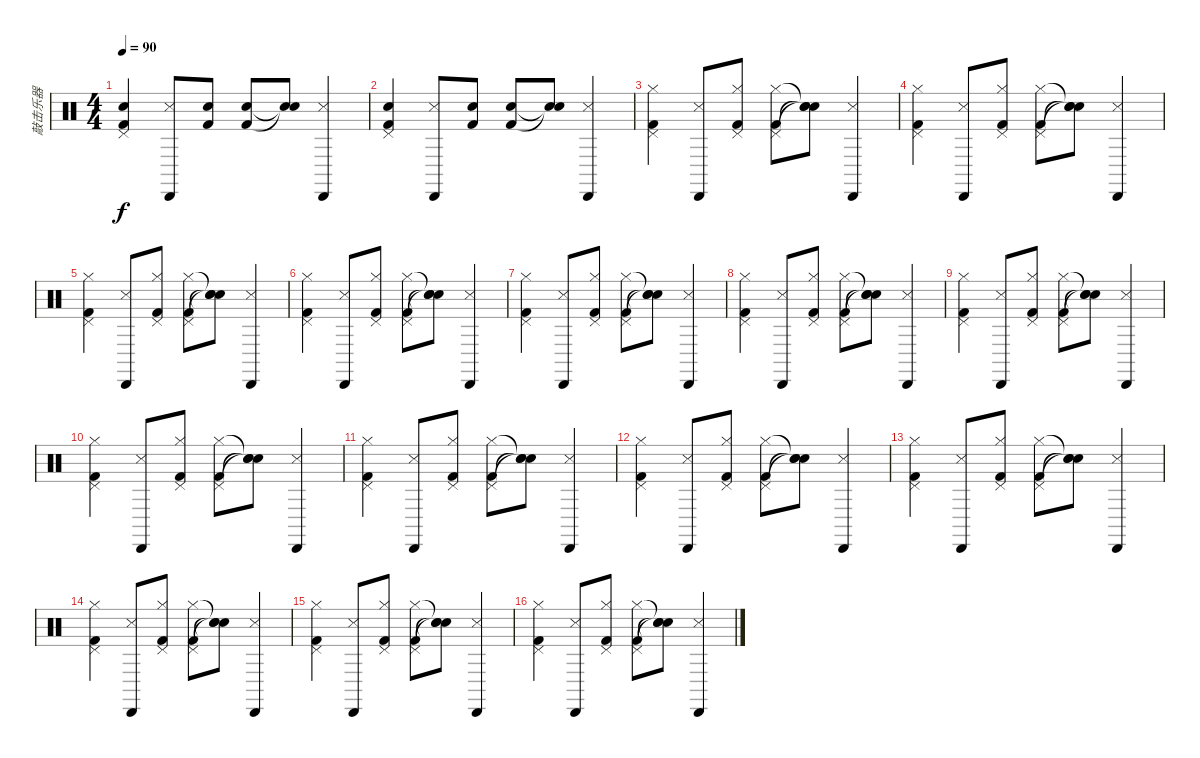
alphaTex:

\track ("敲击乐器" "敲击乐器") {instrument percussion}
\staff {score}
\articulation defaults
\ts (4 4)
\tempo 90
\clef neutral
\ks c
("Snare (hit) 2" "Pedal Hi-Hat (hit)" "Kick (hit) 2").4{dy f} ("Snare (side stick) 3" "Cabasa (hit)").8 ("Snare (hit) 2" "Kick (hit) 2").8 ("Snare (hit) 2" "Kick (hit) 2").8 ("Snare (hit)"{t} "Snare (hit)"{t}).8 ("Snare (side stick) 3" "Cabasa (hit)").4 |
("Snare (hit) 2" "Pedal Hi-Hat (hit)" "Kick (hit) 2").4 ("Snare (side stick) 3" "Cabasa (hit)").8 ("Snare (hit) 2" "Kick (hit) 2").8 ("Snare (hit) 2" "Kick (hit) 2").8 ("Snare (hit)"{t} "Snare (hit)"{t}).8 ("Snare (side stick) 3" "Cabasa (hit)").4 |
("Hi-Hat (closed)" "Pedal Hi-Hat (hit)" "Kick (hit) 2").4 ("Snare (side stick) 3" "Cabasa (hit)").8 ("Hi-Hat (closed)" "Pedal Hi-Hat (hit)" "Kick (hit) 2").8 ("Hi-Hat (closed)" "Pedal Hi-Hat (hit)" "Kick (hit) 2").8 ("Snare (hit)"{t} "Snare (hit)"{t} "Snare (hit)"{t}).8 ("Snare (side stick) 3" "Cabasa (hit)").4 |
("Hi-Hat (closed)" "Pedal Hi-Hat (hit)" "Kick (hit) 2").4 ("Snare (side stick) 3" "Cabasa (hit)").8 ("Hi-Hat (closed)" "Pedal Hi-Hat (hit)" "Kick (hit) 2").8 ("Hi-Hat (closed)" "Pedal Hi-Hat (hit)" "Kick (hit) 2").8 ("Snare (hit)"{t} "Snare (hit)"{t} "Snare (hit)"{t}).8 ("Snare (side stick) 3" "Cabasa (hit)").4 |
("Hi-Hat (closed)" "Pedal Hi-Hat (hit)" "Kick (hit) 2").4 ("Snare (side stick) 3" "Cabasa (hit)").8 ("Hi-Hat (closed)" "Pedal Hi-Hat (hit)" "Kick (hit) 2").8 ("Hi-Hat (closed)" "Pedal Hi-Hat (hit)" "Kick (hit) 2").8 ("Snare (hit)"{t} "Snare (hit)"{t} "Snare (hit)"{t}).8 ("Snare (side stick) 3" "Cabasa (hit)").4 |
("Hi-Hat (closed)" "Pedal Hi-Hat (hit)" "Kick (hit) 2").4 ("Snare (side stick) 3" "Cabasa (hit)").8 ("Hi-Hat (closed)" "Pedal Hi-Hat (hit)" "Kick (hit) 2").8 ("Hi-Hat (closed)" "Pedal Hi-Hat (hit)" "Kick (hit) 2").8 ("Snare (hit)"{t} "Snare (hit)"{t} "Snare (hit)"{t}).8 ("Snare (side stick) 3" "Cabasa (hit)").4 |
("Hi-Hat (closed)" "Pedal Hi-Hat (hit)" "Kick (hit) 2").4 ("Snare (side stick) 3" "Cabasa (hit)").8 ("Hi-Hat (closed)" "Pedal Hi-Hat (hit)" "Kick (hit) 2").8 ("Hi-Hat (closed)" "Pedal Hi-Hat (hit)" "Kick (hit) 2").8 ("Snare (hit)"{t} "Snare (hit)"{t} "Snare (hit)"{t}).8 ("Snare (side stick) 3" "Cabasa (hit)").4 |
("Hi-Hat (closed)" "Pedal Hi-Hat (hit)" "Kick (hit) 2").4 ("Snare (side stick) 3" "Cabasa (hit)").8 ("Hi-Hat (closed)" "Pedal Hi-Hat (hit)" "Kick (hit) 2").8 ("Hi-Hat (closed)" "Pedal Hi-Hat (hit)" "Kick (hit) 2").8 ("Snare (hit)"{t} "Snare (hit)"{t} "Snare (hit)"{t}).8 ("Snare (side stick) 3" "Cabasa (hit)").4 |
("Hi-Hat (closed)" "Pedal Hi-Hat (hit)" "Kick (hit) 2").4 ("Snare (side stick) 3" "Cabasa (hit)").8 ("Hi-Hat (closed)" "Pedal Hi-Hat (hit)" "Kick (hit) 2").8 ("Hi-Hat (closed)" "Pedal Hi-Hat (hit)" "Kick (hit) 2").8 ("Snare (hit)"{t} "Snare (hit)"{t} "Snare (hit)"{t}).8 ("Snare (side stick) 3" "Cabasa (hit)").4 |
("Hi-Hat (closed)" "Pedal Hi-Hat (hit)" "Kick (hit) 2").4 ("Snare (side stick) 3" "Cabasa (hit)").8 ("Hi-Hat (closed)" "Pedal Hi-Hat (hit)" "Kick (hit) 2").8 ("Hi-Hat (closed)" "Pedal Hi-Hat (hit)" "Kick (hit) 2").8 ("Snare (hit)"{t} "Snare (hit)"{t} "Snare (hit)"{t}).8 ("Snare (side stick) 3" "Cabasa (hit)").4 |
("Hi-Hat (closed)" "Pedal Hi-Hat (hit)" "Kick (hit) 2").4 ("Snare (side stick) 3" "Cabasa (hit)").8 ("Hi-Hat (closed)" "Pedal Hi-Hat (hit)" "Kick (hit) 2").8 ("Hi-Hat (closed)" "Pedal Hi-Hat (hit)" "Kick (hit) 2").8 ("Snare (hit)"{t} "Snare (hit)"{t} "Snare (hit)"{t}).8 ("Snare (side stick) 3" "Cabasa (hit)").4 |
("Hi-Hat (closed)" "Pedal Hi-Hat (hit)" "Kick (hit) 2").4 ("Snare (side stick) 3" "Cabasa (hit)").8 ("Hi-Hat (closed)" "Pedal Hi-Hat (hit)" "Kick (hit) 2").8 ("Hi-Hat (closed)" "Pedal Hi-Hat (hit)" "Kick (hit) 2").8 ("Snare (hit)"{t} "Snare (hit)"{t} "Snare (hit)"{t}).8 ("Snare (side stick) 3" "Cabasa (hit)").4 |
("Hi-Hat (closed)" "Pedal Hi-Hat (hit)" "Kick (hit) 2").4 ("Snare (side stick) 3" "Cabasa (hit)").8 ("Hi-Hat (closed)" "Pedal Hi-Hat (hit)" "Kick (hit) 2").8 ("Hi-Hat (closed)" "Pedal Hi-Hat (hit)" "Kick (hit) 2").8 ("Snare (hit)"{t} "Snare (hit)"{t} "Snare (hit)"{t}).8 ("Snare (side stick) 3" "Cabasa (hit)").4 |
("Hi-Hat (closed)" "Pedal Hi-Hat (hit)" "Kick (hit) 2").4 ("Snare (side stick) 3" "Cabasa (hit)").8 ("Hi-Hat (closed)" "Pedal Hi-Hat (hit)" "Kick (hit) 2").8 ("Hi-Hat (closed)" "Pedal Hi-Hat (hit)" "Kick (hit) 2").8 ("Snare (hit)"{t} "Snare (hit)"{t} "Snare (hit)"{t}).8 ("Snare (side stick) 3" "Cabasa (hit)").4 |
("Hi-Hat (closed)" "Pedal Hi-Hat (hit)" "Kick (hit) 2").4 ("Snare (side stick) 3" "Cabasa (hit)").8 ("Hi-Hat (closed)" "Pedal Hi-Hat (hit)" "Kick (hit) 2").8 ("Hi-Hat (closed)" "Pedal Hi-Hat (hit)" "Kick (hit) 2").8 ("Snare (hit)"{t} "Snare (hit)"{t} "Snare (hit)"{t}).8 ("Snare (side stick) 3" "Cabasa (hit)").4 |
("Hi-Hat (closed)" "Pedal Hi-Hat (hit)" "Kick (hit) 2").4 ("Snare (side stick) 3" "Cabasa (hit)").8 ("Hi-Hat (closed)" "Pedal Hi-Hat (hit)" "Kick (hit) 2").8 ("Hi-Hat (closed)" "Pedal Hi-Hat (hit)" "Kick (hit) 2").8 ("Snare (hit)"{t} "Snare (hit)"{t} "Snare (hit)"{t}).8 ("Snare (side stick) 3" "Cabasa (hit)").4
